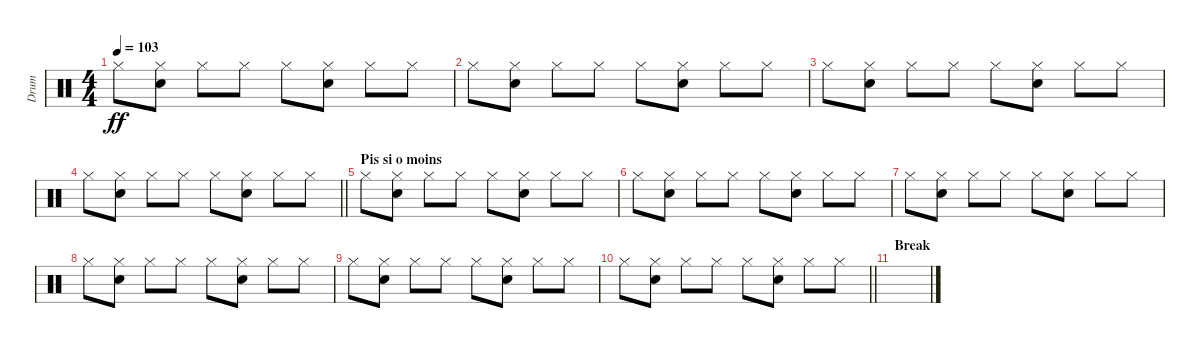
\track ("Drum" "Drum") {instrument percussion}
\staff {score}
\articulation defaults
\ts (4 4)
\tempo 103
\clef neutral
\ks c "Hi-Hat (closed)".8{dy ff}
("Hi-Hat (closed)" "Electric Snare (hit)").8 "Hi-Hat (closed)".8 "Hi-Hat (closed)".8 "Hi-Hat (closed)".8 ("Hi-Hat (closed)" "Electric Snare (hit)").8 "Hi-Hat (closed)".8 "Hi-Hat (closed)".8 |
"Hi-Hat (closed)".8 ("Hi-Hat (closed)" "Electric Snare (hit)").8 "Hi-Hat (closed)".8 "Hi-Hat (closed)".8 "Hi-Hat (closed)".8 ("Hi-Hat (closed)" "Electric Snare (hit)").8 "Hi-Hat (closed)".8 "Hi-Hat (closed)".8 |
"Hi-Hat (closed)".8 ("Hi-Hat (closed)" "Electric Snare (hit)").8 "Hi-Hat (closed)".8 "Hi-Hat (closed)".8 "Hi-Hat (closed)".8 ("Hi-Hat (closed)" "Electric Snare (hit)").8 "Hi-Hat (closed)".8 "Hi-Hat (closed)".8 |
\barLineRight lightlight "Hi-Hat (closed)".8
("Hi-Hat (closed)" "Electric Snare (hit)").8 "Hi-Hat (closed)".8 "Hi-Hat (closed)".8 "Hi-Hat (closed)".8 ("Hi-Hat (closed)" "Electric Snare (hit)").8 "Hi-Hat (closed)".8 "Hi-Hat (closed)".8 |
\section ("" "Pis si o moins")
"Hi-Hat (closed)".8 ("Hi-Hat (closed)" "Electric Snare (hit)").8 "Hi-Hat (closed)".8 "Hi-Hat (closed)".8 "Hi-Hat (closed)".8 ("Hi-Hat (closed)" "Electric Snare (hit)").8 "Hi-Hat (closed)".8 "Hi-Hat (closed)".8 |
"Hi-Hat (closed)".8 ("Hi-Hat (closed)" "Electric Snare (hit)").8 "Hi-Hat (closed)".8 "Hi-Hat (closed)".8 "Hi-Hat (closed)".8 ("Hi-Hat (closed)" "Electric Snare (hit)").8 "Hi-Hat (closed)".8 "Hi-Hat (closed)".8 |
"Hi-Hat (closed)".8 ("Hi-Hat (closed)" "Electric Snare (hit)").8 "Hi-Hat (closed)".8 "Hi-Hat (closed)".8 "Hi-Hat (closed)".8 ("Hi-Hat (closed)" "Electric Snare (hit)").8 "Hi-Hat (closed)".8 "Hi-Hat (closed)".8 |
"Hi-Hat (closed)".8 ("Hi-Hat (closed)" "Electric Snare (hit)").8 "Hi-Hat (closed)".8 "Hi-Hat (closed)".8 "Hi-Hat (closed)".8 ("Hi-Hat (closed)" "Electric Snare (hit)").8 "Hi-Hat (closed)".8 "Hi-Hat (closed)".8 |
"Hi-Hat (closed)".8 ("Hi-Hat (closed)" "Electric Snare (hit)").8 "Hi-Hat (closed)".8 "Hi-Hat (closed)".8 "Hi-Hat (closed)".8 ("Hi-Hat (closed)" "Electric Snare (hit)").8 "Hi-Hat (closed)".8 "Hi-Hat (closed)".8 |
\barLineRight lightlight "Hi-Hat (closed)".8
("Hi-Hat (closed)" "Electric Snare (hit)").8 "Hi-Hat (closed)".8 "Hi-Hat (closed)".8 "Hi-Hat (closed)".8 ("Hi-Hat (closed)" "Electric Snare (hit)").8 "Hi-Hat (closed)".8 "Hi-Hat (closed)".8 |
\section ("" "Break")
